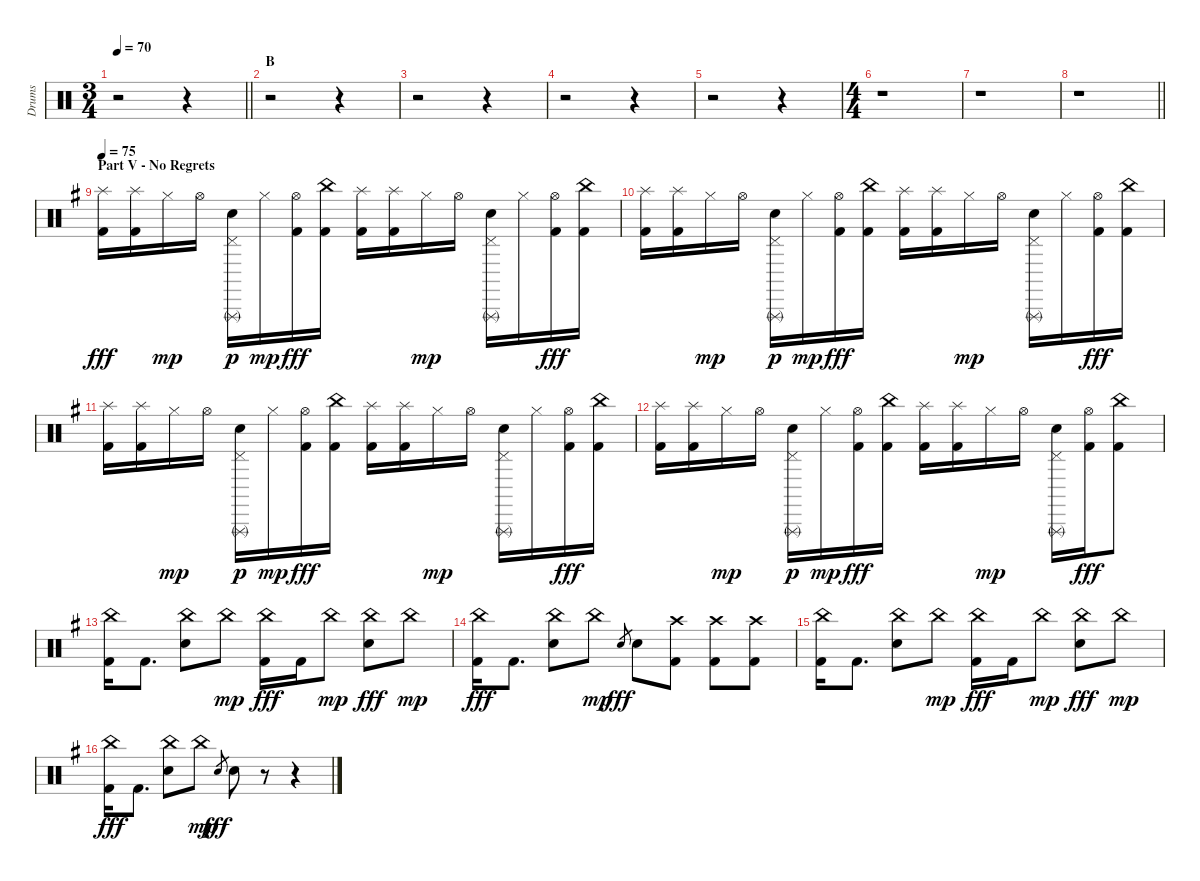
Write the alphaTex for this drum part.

\track ("Drums" "Drums") {instrument percussion}
\staff {score}
\articulation defaults
\ts (3 4)
\tempo 70
\clef neutral
\barLineRight lightlight
\ks aminor
r.2{dy f} r.4 |
\section ("" "B")
r.2 r.4 |
r.2 r.4 |
r.2 r.4 |
r.2 r.4 |
\ts (4 4)
r.1 |
r.1 |
\barLineRight lightlight
r.1 |
\section ("" "Part V - No Regrets")
\tempo 75
\ks eminor
("Splash (hit)" "Kick (hit) 2").16{dy fff} ("Splash (hit)" "Kick (hit) 2").16 "Hi-Hat (closed)".16{dy mp} "Hi-Hat (open)".16 ("Pedal Hi-Hat (hit)" "Triangle (rnute)" "Electric Snare (hit)").16{dy p} "Hi-Hat (closed)".16{dy mp} ("Hi-Hat (open)" "Kick (hit) 2").16{dy fff} ("China (hit)" "Kick (hit) 2").16 ("Splash (hit)" "Kick (hit) 2").16 ("Splash (hit)" "Kick (hit) 2").16 "Hi-Hat (closed)".16{dy mp} "Hi-Hat (open)".16 ("Pedal Hi-Hat (hit)" "Triangle (rnute)" "Electric Snare (hit)").16 "Hi-Hat (closed)".16 ("Hi-Hat (open)" "Kick (hit) 2").16{dy fff} ("China (hit)" "Kick (hit) 2").16 |
("Splash (hit)" "Kick (hit) 2").16 ("Splash (hit)" "Kick (hit) 2").16 "Hi-Hat (closed)".16{dy mp} "Hi-Hat (open)".16 ("Pedal Hi-Hat (hit)" "Triangle (rnute)" "Electric Snare (hit)").16{dy p} "Hi-Hat (closed)".16{dy mp} ("Hi-Hat (open)" "Kick (hit) 2").16{dy fff} ("China (hit)" "Kick (hit) 2").16 ("Splash (hit)" "Kick (hit) 2").16 ("Splash (hit)" "Kick (hit) 2").16 "Hi-Hat (closed)".16{dy mp} "Hi-Hat (open)".16 ("Pedal Hi-Hat (hit)" "Triangle (rnute)" "Electric Snare (hit)").16 "Hi-Hat (closed)".16 ("Hi-Hat (open)" "Kick (hit) 2").16{dy fff} ("China (hit)" "Kick (hit) 2").16 |
("Splash (hit)" "Kick (hit) 2").16 ("Splash (hit)" "Kick (hit) 2").16 "Hi-Hat (closed)".16{dy mp} "Hi-Hat (open)".16 ("Pedal Hi-Hat (hit)" "Triangle (rnute)" "Electric Snare (hit)").16{dy p} "Hi-Hat (closed)".16{dy mp} ("Hi-Hat (open)" "Kick (hit) 2").16{dy fff} ("China (hit)" "Kick (hit) 2").16 ("Splash (hit)" "Kick (hit) 2").16 ("Splash (hit)" "Kick (hit) 2").16 "Hi-Hat (closed)".16{dy mp} "Hi-Hat (open)".16 ("Pedal Hi-Hat (hit)" "Triangle (rnute)" "Electric Snare (hit)").16 "Hi-Hat (closed)".16 ("Hi-Hat (open)" "Kick (hit) 2").16{dy fff} ("China (hit)" "Kick (hit) 2").16 |
("Splash (hit)" "Kick (hit) 2").16 ("Splash (hit)" "Kick (hit) 2").16 "Hi-Hat (closed)".16{dy mp} "Hi-Hat (open)".16 ("Pedal Hi-Hat (hit)" "Triangle (rnute)" "Electric Snare (hit)").16{dy p} "Hi-Hat (closed)".16{dy mp} ("Hi-Hat (open)" "Kick (hit) 2").16{dy fff} ("China (hit)" "Kick (hit) 2").16 ("Splash (hit)" "Kick (hit) 2").16 ("Splash (hit)" "Kick (hit) 2").16 "Hi-Hat (closed)".16{dy mp} "Hi-Hat (open)".16 ("Pedal Hi-Hat (hit)" "Triangle (rnute)" "Electric Snare (hit)").16 ("Hi-Hat (open)" "Kick (hit) 2").16{dy fff} ("China (hit)" "Kick (hit) 2").8 |
("China (hit)" "Kick (hit) 2").16 "Kick (hit) 2".8{d} ("China (hit)" "Snare (hit) 2").8 "China (hit)".8{dy mp} ("China (hit)" "Kick (hit) 2").16{dy fff} "Kick (hit) 2".16 "China (hit)".8{dy mp} ("China (hit)" "Snare (hit) 2").8{dy fff} "China (hit)".8{dy mp} |
("China (hit)" "Kick (hit) 2").16{dy fff} "Kick (hit) 2".8{d} ("China (hit)" "Snare (hit) 2").8 "China (hit)".8{dy mp} "Snare (hit) 2".8{gr dy fff} "Snare (hit) 2".8 ("Crash high (hit)" "Kick (hit) 2").8 ("Crash high (hit)" "Kick (hit) 2").8 ("Crash high (hit)" "Kick (hit) 2").8 |
("China (hit)" "Kick (hit) 2").16 "Kick (hit) 2".8{d} ("China (hit)" "Snare (hit) 2").8 "China (hit)".8{dy mp} ("China (hit)" "Kick (hit) 2").16{dy fff} "Kick (hit) 2".16 "China (hit)".8{dy mp} ("China (hit)" "Snare (hit) 2").8{dy fff} "China (hit)".8{dy mp} |
("China (hit)" "Kick (hit) 2").16{dy fff} "Kick (hit) 2".8{d} ("China (hit)" "Snare (hit) 2").8 "China (hit)".8{dy mp} "Snare (hit) 2".8{gr dy fff} "Snare (hit) 2".8 r.8 r.4
